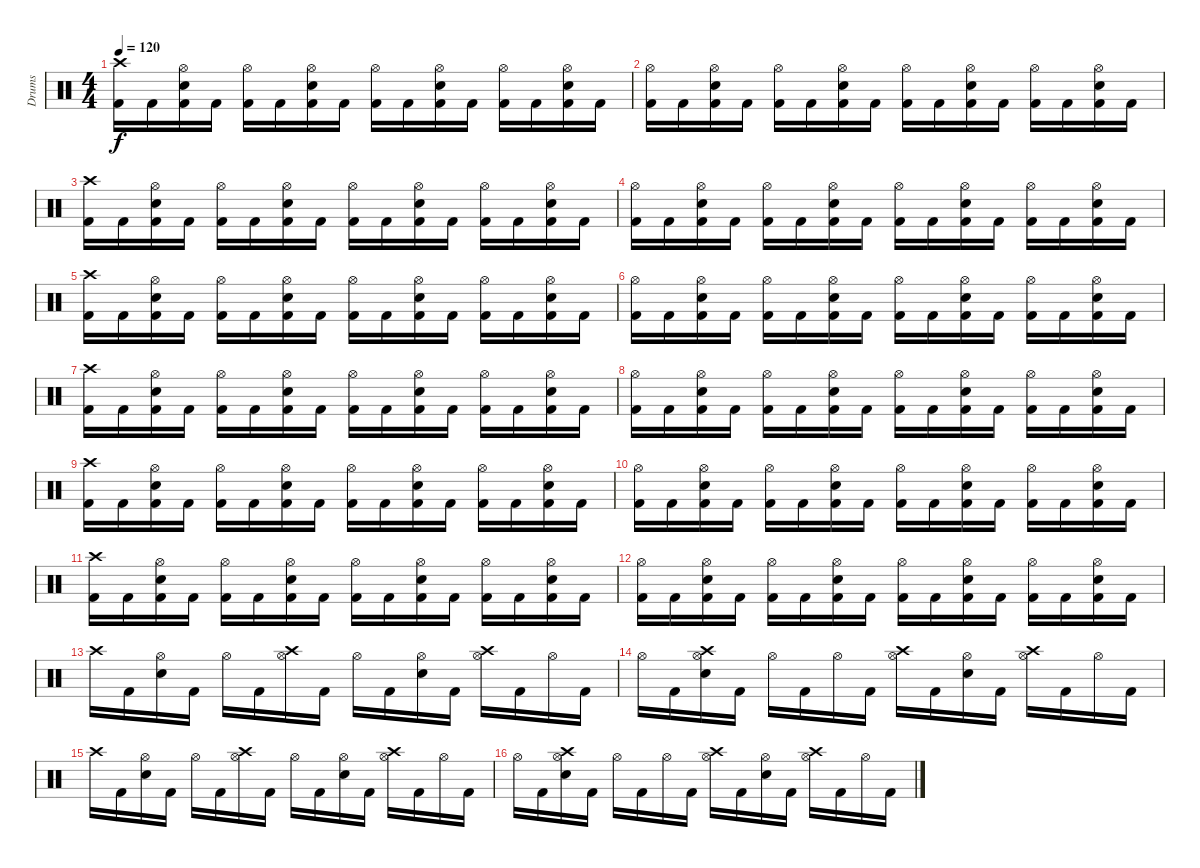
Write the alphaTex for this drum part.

\track ("Drums" "Drums") {instrument percussion}
\staff {score}
\articulation defaults
\ts (4 4)
\tempo 120
\clef neutral
\ks c
("Kick (hit) 2" "Crash high (hit)").16{dy f} "Kick (hit) 2".16 ("Kick (hit) 2" "Snare (hit) 2" "Hi-Hat (open)").16 "Kick (hit) 2".16 ("Kick (hit) 2" "Hi-Hat (open)").16 "Kick (hit) 2".16 ("Kick (hit) 2" "Snare (hit) 2" "Hi-Hat (open)").16 "Kick (hit) 2".16 ("Kick (hit) 2" "Hi-Hat (open)").16 "Kick (hit) 2".16 ("Kick (hit) 2" "Snare (hit) 2" "Hi-Hat (open)").16 "Kick (hit) 2".16 ("Kick (hit) 2" "Hi-Hat (open)").16 "Kick (hit) 2".16 ("Kick (hit) 2" "Snare (hit) 2" "Hi-Hat (open)").16 "Kick (hit) 2".16 |
("Kick (hit) 2" "Hi-Hat (open)").16 "Kick (hit) 2".16 ("Kick (hit) 2" "Snare (hit) 2" "Hi-Hat (open)").16 "Kick (hit) 2".16 ("Kick (hit) 2" "Hi-Hat (open)").16 "Kick (hit) 2".16 ("Kick (hit) 2" "Snare (hit) 2" "Hi-Hat (open)").16 "Kick (hit) 2".16 ("Kick (hit) 2" "Hi-Hat (open)").16 "Kick (hit) 2".16 ("Kick (hit) 2" "Snare (hit) 2" "Hi-Hat (open)").16 "Kick (hit) 2".16 ("Kick (hit) 2" "Hi-Hat (open)").16 "Kick (hit) 2".16 ("Kick (hit) 2" "Snare (hit) 2" "Hi-Hat (open)").16 "Kick (hit) 2".16 |
("Kick (hit) 2" "Crash high (hit)").16 "Kick (hit) 2".16 ("Kick (hit) 2" "Snare (hit) 2" "Hi-Hat (open)").16 "Kick (hit) 2".16 ("Kick (hit) 2" "Hi-Hat (open)").16 "Kick (hit) 2".16 ("Kick (hit) 2" "Snare (hit) 2" "Hi-Hat (open)").16 "Kick (hit) 2".16 ("Kick (hit) 2" "Hi-Hat (open)").16 "Kick (hit) 2".16 ("Kick (hit) 2" "Snare (hit) 2" "Hi-Hat (open)").16 "Kick (hit) 2".16 ("Kick (hit) 2" "Hi-Hat (open)").16 "Kick (hit) 2".16 ("Kick (hit) 2" "Snare (hit) 2" "Hi-Hat (open)").16 "Kick (hit) 2".16 |
("Kick (hit) 2" "Hi-Hat (open)").16 "Kick (hit) 2".16 ("Kick (hit) 2" "Snare (hit) 2" "Hi-Hat (open)").16 "Kick (hit) 2".16 ("Kick (hit) 2" "Hi-Hat (open)").16 "Kick (hit) 2".16 ("Kick (hit) 2" "Snare (hit) 2" "Hi-Hat (open)").16 "Kick (hit) 2".16 ("Kick (hit) 2" "Hi-Hat (open)").16 "Kick (hit) 2".16 ("Kick (hit) 2" "Snare (hit) 2" "Hi-Hat (open)").16 "Kick (hit) 2".16 ("Kick (hit) 2" "Hi-Hat (open)").16 "Kick (hit) 2".16 ("Kick (hit) 2" "Snare (hit) 2" "Hi-Hat (open)").16 "Kick (hit) 2".16 |
("Kick (hit) 2" "Crash high (hit)").16 "Kick (hit) 2".16 ("Kick (hit) 2" "Snare (hit) 2" "Hi-Hat (open)").16 "Kick (hit) 2".16 ("Kick (hit) 2" "Hi-Hat (open)").16 "Kick (hit) 2".16 ("Kick (hit) 2" "Snare (hit) 2" "Hi-Hat (open)").16 "Kick (hit) 2".16 ("Kick (hit) 2" "Hi-Hat (open)").16 "Kick (hit) 2".16 ("Kick (hit) 2" "Snare (hit) 2" "Hi-Hat (open)").16 "Kick (hit) 2".16 ("Kick (hit) 2" "Hi-Hat (open)").16 "Kick (hit) 2".16 ("Kick (hit) 2" "Snare (hit) 2" "Hi-Hat (open)").16 "Kick (hit) 2".16 |
("Kick (hit) 2" "Hi-Hat (open)").16 "Kick (hit) 2".16 ("Kick (hit) 2" "Snare (hit) 2" "Hi-Hat (open)").16 "Kick (hit) 2".16 ("Kick (hit) 2" "Hi-Hat (open)").16 "Kick (hit) 2".16 ("Kick (hit) 2" "Snare (hit) 2" "Hi-Hat (open)").16 "Kick (hit) 2".16 ("Kick (hit) 2" "Hi-Hat (open)").16 "Kick (hit) 2".16 ("Kick (hit) 2" "Snare (hit) 2" "Hi-Hat (open)").16 "Kick (hit) 2".16 ("Kick (hit) 2" "Hi-Hat (open)").16 "Kick (hit) 2".16 ("Kick (hit) 2" "Snare (hit) 2" "Hi-Hat (open)").16 "Kick (hit) 2".16 |
("Kick (hit) 2" "Crash high (hit)").16 "Kick (hit) 2".16 ("Kick (hit) 2" "Snare (hit) 2" "Hi-Hat (open)").16 "Kick (hit) 2".16 ("Kick (hit) 2" "Hi-Hat (open)").16 "Kick (hit) 2".16 ("Kick (hit) 2" "Snare (hit) 2" "Hi-Hat (open)").16 "Kick (hit) 2".16 ("Kick (hit) 2" "Hi-Hat (open)").16 "Kick (hit) 2".16 ("Kick (hit) 2" "Snare (hit) 2" "Hi-Hat (open)").16 "Kick (hit) 2".16 ("Kick (hit) 2" "Hi-Hat (open)").16 "Kick (hit) 2".16 ("Kick (hit) 2" "Snare (hit) 2" "Hi-Hat (open)").16 "Kick (hit) 2".16 |
("Kick (hit) 2" "Hi-Hat (open)").16 "Kick (hit) 2".16 ("Kick (hit) 2" "Snare (hit) 2" "Hi-Hat (open)").16 "Kick (hit) 2".16 ("Kick (hit) 2" "Hi-Hat (open)").16 "Kick (hit) 2".16 ("Kick (hit) 2" "Snare (hit) 2" "Hi-Hat (open)").16 "Kick (hit) 2".16 ("Kick (hit) 2" "Hi-Hat (open)").16 "Kick (hit) 2".16 ("Kick (hit) 2" "Snare (hit) 2" "Hi-Hat (open)").16 "Kick (hit) 2".16 ("Kick (hit) 2" "Hi-Hat (open)").16 "Kick (hit) 2".16 ("Kick (hit) 2" "Snare (hit) 2" "Hi-Hat (open)").16 "Kick (hit) 2".16 |
("Kick (hit) 2" "Crash high (hit)").16 "Kick (hit) 2".16 ("Kick (hit) 2" "Snare (hit) 2" "Hi-Hat (open)").16 "Kick (hit) 2".16 ("Kick (hit) 2" "Hi-Hat (open)").16 "Kick (hit) 2".16 ("Kick (hit) 2" "Snare (hit) 2" "Hi-Hat (open)").16 "Kick (hit) 2".16 ("Kick (hit) 2" "Hi-Hat (open)").16 "Kick (hit) 2".16 ("Kick (hit) 2" "Snare (hit) 2" "Hi-Hat (open)").16 "Kick (hit) 2".16 ("Kick (hit) 2" "Hi-Hat (open)").16 "Kick (hit) 2".16 ("Kick (hit) 2" "Snare (hit) 2" "Hi-Hat (open)").16 "Kick (hit) 2".16 |
("Kick (hit) 2" "Hi-Hat (open)").16 "Kick (hit) 2".16 ("Kick (hit) 2" "Snare (hit) 2" "Hi-Hat (open)").16 "Kick (hit) 2".16 ("Kick (hit) 2" "Hi-Hat (open)").16 "Kick (hit) 2".16 ("Kick (hit) 2" "Snare (hit) 2" "Hi-Hat (open)").16 "Kick (hit) 2".16 ("Kick (hit) 2" "Hi-Hat (open)").16 "Kick (hit) 2".16 ("Kick (hit) 2" "Snare (hit) 2" "Hi-Hat (open)").16 "Kick (hit) 2".16 ("Kick (hit) 2" "Hi-Hat (open)").16 "Kick (hit) 2".16 ("Kick (hit) 2" "Snare (hit) 2" "Hi-Hat (open)").16 "Kick (hit) 2".16 |
("Kick (hit) 2" "Crash high (hit)").16 "Kick (hit) 2".16 ("Kick (hit) 2" "Snare (hit) 2" "Hi-Hat (open)").16 "Kick (hit) 2".16 ("Kick (hit) 2" "Hi-Hat (open)").16 "Kick (hit) 2".16 ("Kick (hit) 2" "Snare (hit) 2" "Hi-Hat (open)").16 "Kick (hit) 2".16 ("Kick (hit) 2" "Hi-Hat (open)").16 "Kick (hit) 2".16 ("Kick (hit) 2" "Snare (hit) 2" "Hi-Hat (open)").16 "Kick (hit) 2".16 ("Kick (hit) 2" "Hi-Hat (open)").16 "Kick (hit) 2".16 ("Kick (hit) 2" "Snare (hit) 2" "Hi-Hat (open)").16 "Kick (hit) 2".16 |
("Kick (hit) 2" "Hi-Hat (open)").16 "Kick (hit) 2".16 ("Kick (hit) 2" "Snare (hit) 2" "Hi-Hat (open)").16 "Kick (hit) 2".16 ("Kick (hit) 2" "Hi-Hat (open)").16 "Kick (hit) 2".16 ("Kick (hit) 2" "Snare (hit) 2" "Hi-Hat (open)").16 "Kick (hit) 2".16 ("Kick (hit) 2" "Hi-Hat (open)").16 "Kick (hit) 2".16 ("Kick (hit) 2" "Snare (hit) 2" "Hi-Hat (open)").16 "Kick (hit) 2".16 ("Kick (hit) 2" "Hi-Hat (open)").16 "Kick (hit) 2".16 ("Kick (hit) 2" "Snare (hit) 2" "Hi-Hat (open)").16 "Kick (hit) 2".16 |
"Crash high (hit)".16 "Kick (hit) 2".16 ("Hi-Hat (open)" "Snare (hit) 2").16 "Kick (hit) 2".16 "Hi-Hat (open)".16 "Kick (hit) 2".16 ("Crash high (hit)" "Hi-Hat (open)").16 "Kick (hit) 2".16 "Hi-Hat (open)".16 "Kick (hit) 2".16 ("Hi-Hat (open)" "Snare (hit) 2").16 "Kick (hit) 2".16 ("Hi-Hat (open)" "Crash high (hit)").16 "Kick (hit) 2".16 "Hi-Hat (open)".16 "Kick (hit) 2".16 |
"Hi-Hat (open)".16 "Kick (hit) 2".16 ("Snare (hit) 2" "Hi-Hat (open)" "Crash high (hit)").16 "Kick (hit) 2".16 "Hi-Hat (open)".16 "Kick (hit) 2".16 "Hi-Hat (open)".16 "Kick (hit) 2".16 ("Hi-Hat (open)" "Crash high (hit)").16 "Kick (hit) 2".16 ("Snare (hit) 2" "Hi-Hat (open)").16 "Kick (hit) 2".16 ("Hi-Hat (open)" "Crash high (hit)").16 "Kick (hit) 2".16 "Hi-Hat (open)".16 "Kick (hit) 2".16 |
"Crash high (hit)".16 "Kick (hit) 2".16 ("Hi-Hat (open)" "Snare (hit) 2").16 "Kick (hit) 2".16 "Hi-Hat (open)".16 "Kick (hit) 2".16 ("Crash high (hit)" "Hi-Hat (open)").16 "Kick (hit) 2".16 "Hi-Hat (open)".16 "Kick (hit) 2".16 ("Hi-Hat (open)" "Snare (hit) 2").16 "Kick (hit) 2".16 ("Hi-Hat (open)" "Crash high (hit)").16 "Kick (hit) 2".16 "Hi-Hat (open)".16 "Kick (hit) 2".16 |
"Hi-Hat (open)".16 "Kick (hit) 2".16 ("Snare (hit) 2" "Hi-Hat (open)" "Crash high (hit)").16 "Kick (hit) 2".16 "Hi-Hat (open)".16 "Kick (hit) 2".16 "Hi-Hat (open)".16 "Kick (hit) 2".16 ("Hi-Hat (open)" "Crash high (hit)").16 "Kick (hit) 2".16 ("Snare (hit) 2" "Hi-Hat (open)").16 "Kick (hit) 2".16 ("Hi-Hat (open)" "Crash high (hit)").16 "Kick (hit) 2".16 "Hi-Hat (open)".16 "Kick (hit) 2".16
